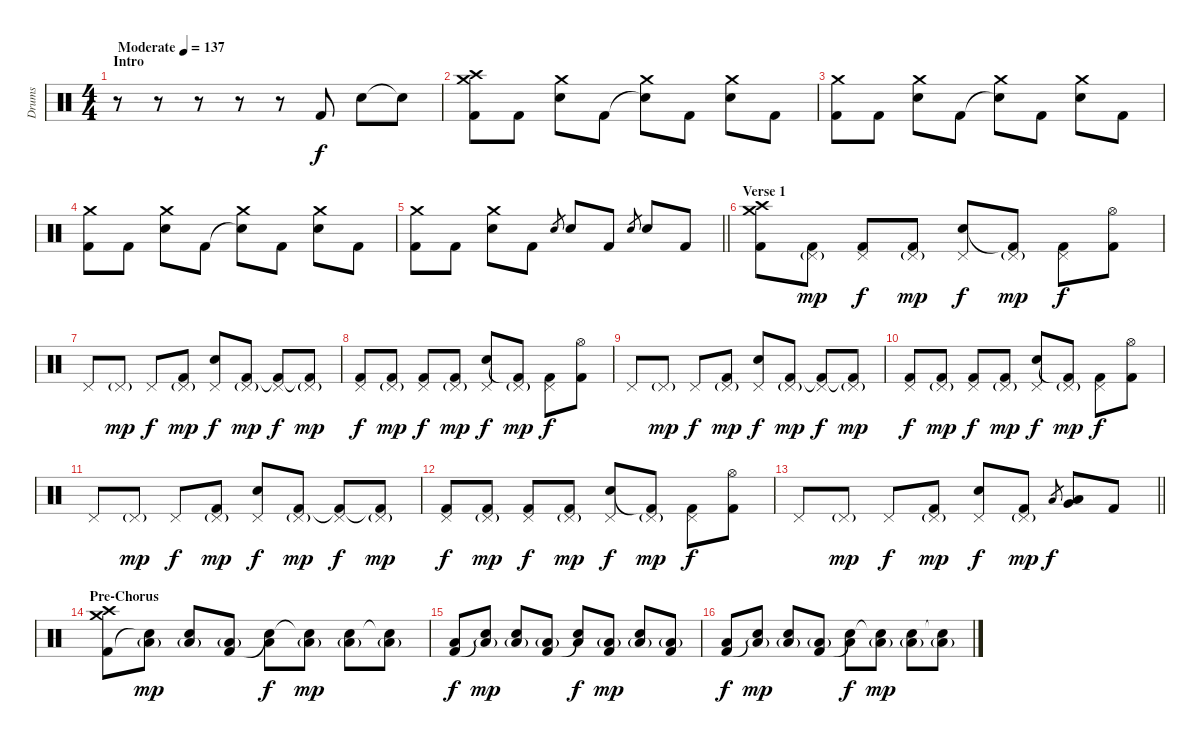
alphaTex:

\track ("Drums" "Drums") {instrument percussion}
\staff {score}
\articulation defaults
\ts (4 4)
\section ("" "Intro")
\tempo (137 "Moderate")
\clef neutral
\ks c
r.8{dy f} r.8 r.8 r.8 r.8 "Kick (hit) 2".8 "Electric Snare (hit)".8 "Snare (hit)"{t}.8 |
("Kick (hit) 2" "Crash medium (hit)" "Crash high (hit)").8 "Kick (hit) 2".8 ("Electric Snare (hit)" "Crash medium (hit)").8 "Kick (hit) 2".8 ("Snare (hit)"{t} "Crash medium (hit)").8 "Kick (hit) 2".8 ("Electric Snare (hit)" "Crash medium (hit)").8 "Kick (hit) 2".8 |
("Kick (hit) 2" "Crash medium (hit)").8 "Kick (hit) 2".8 ("Electric Snare (hit)" "Crash medium (hit)").8 "Kick (hit) 2".8 ("Snare (hit)"{t} "Crash medium (hit)").8 "Kick (hit) 2".8 ("Electric Snare (hit)" "Crash medium (hit)").8 "Kick (hit) 2".8 |
("Kick (hit) 2" "Crash medium (hit)").8 "Kick (hit) 2".8 ("Electric Snare (hit)" "Crash medium (hit)").8 "Kick (hit) 2".8 ("Snare (hit)"{t} "Crash medium (hit)").8 "Kick (hit) 2".8 ("Electric Snare (hit)" "Crash medium (hit)").8 "Kick (hit) 2".8 |
\barLineRight lightlight
("Kick (hit) 2" "Crash medium (hit)").8 "Kick (hit) 2".8 ("Electric Snare (hit)" "Crash medium (hit)").8 "Kick (hit) 2".8 "Electric Snare (hit)".8{gr} "Electric Snare (hit)".8 "Kick (hit) 2".8 "Electric Snare (hit)".8{gr} "Electric Snare (hit)".8 "Kick (hit) 2".8 |
\section ("" "Verse 1")
("Kick (hit) 2" "Crash medium (hit)" "Crash high (hit)").8 ("Kick (hit) 2" "Pedal Hi-Hat (hit)"{g}).8{dy mp} ("Kick (hit) 2" "Pedal Hi-Hat (hit)").8{dy f} ("Kick (hit) 2" "Pedal Hi-Hat (hit)"{g}).8{dy mp} ("Electric Snare (hit)" "Pedal Hi-Hat (hit)").8{dy f} ("Kick (hit) 2"{t} "Pedal Hi-Hat (hit)"{g}).8{dy mp} ("Kick (hit) 2" "Pedal Hi-Hat (hit)").8{dy f} ("Kick (hit) 2" "Hi-Hat (open)").8 |
"Pedal Hi-Hat (hit)".8 "Pedal Hi-Hat (hit)"{g}.8{dy mp} "Pedal Hi-Hat (hit)".8{dy f} ("Kick (hit) 2" "Pedal Hi-Hat (hit)"{g}).8{dy mp} ("Electric Snare (hit)" "Pedal Hi-Hat (hit)").8{dy f} ("Kick (hit) 2" "Pedal Hi-Hat (hit)"{g}).8{dy mp} ("Kick (hit) 2"{t} "Pedal Hi-Hat (hit)").8{dy f} ("Kick (hit) 2"{t} "Pedal Hi-Hat (hit)"{g}).8{dy mp} |
("Kick (hit) 2" "Pedal Hi-Hat (hit)").8{dy f} ("Kick (hit) 2" "Pedal Hi-Hat (hit)"{g}).8{dy mp} ("Kick (hit) 2" "Pedal Hi-Hat (hit)").8{dy f} ("Kick (hit) 2" "Pedal Hi-Hat (hit)"{g}).8{dy mp} ("Electric Snare (hit)" "Pedal Hi-Hat (hit)").8{dy f} ("Kick (hit) 2"{t} "Pedal Hi-Hat (hit)"{g}).8{dy mp} ("Kick (hit) 2" "Pedal Hi-Hat (hit)").8{dy f} ("Kick (hit) 2" "Hi-Hat (open)").8 |
"Pedal Hi-Hat (hit)".8 "Pedal Hi-Hat (hit)"{g}.8{dy mp} "Pedal Hi-Hat (hit)".8{dy f} ("Kick (hit) 2" "Pedal Hi-Hat (hit)"{g}).8{dy mp} ("Electric Snare (hit)" "Pedal Hi-Hat (hit)").8{dy f} ("Kick (hit) 2" "Pedal Hi-Hat (hit)"{g}).8{dy mp} ("Kick (hit) 2"{t} "Pedal Hi-Hat (hit)").8{dy f} ("Kick (hit) 2"{t} "Pedal Hi-Hat (hit)"{g}).8{dy mp} |
("Kick (hit) 2" "Pedal Hi-Hat (hit)").8{dy f} ("Kick (hit) 2" "Pedal Hi-Hat (hit)"{g}).8{dy mp} ("Kick (hit) 2" "Pedal Hi-Hat (hit)").8{dy f} ("Kick (hit) 2" "Pedal Hi-Hat (hit)"{g}).8{dy mp} ("Electric Snare (hit)" "Pedal Hi-Hat (hit)").8{dy f} ("Kick (hit) 2"{t} "Pedal Hi-Hat (hit)"{g}).8{dy mp} ("Kick (hit) 2" "Pedal Hi-Hat (hit)").8{dy f} ("Kick (hit) 2" "Hi-Hat (open)").8 |
"Pedal Hi-Hat (hit)".8 "Pedal Hi-Hat (hit)"{g}.8{dy mp} "Pedal Hi-Hat (hit)".8{dy f} ("Kick (hit) 2" "Pedal Hi-Hat (hit)"{g}).8{dy mp} ("Electric Snare (hit)" "Pedal Hi-Hat (hit)").8{dy f} ("Kick (hit) 2" "Pedal Hi-Hat (hit)"{g}).8{dy mp} ("Kick (hit) 2"{t} "Pedal Hi-Hat (hit)").8{dy f} ("Kick (hit) 2"{t} "Pedal Hi-Hat (hit)"{g}).8{dy mp} |
("Kick (hit) 2" "Pedal Hi-Hat (hit)").8{dy f} ("Kick (hit) 2" "Pedal Hi-Hat (hit)"{g}).8{dy mp} ("Kick (hit) 2" "Pedal Hi-Hat (hit)").8{dy f} ("Kick (hit) 2" "Pedal Hi-Hat (hit)"{g}).8{dy mp} ("Electric Snare (hit)" "Pedal Hi-Hat (hit)").8{dy f} ("Kick (hit) 2"{t} "Pedal Hi-Hat (hit)"{g}).8{dy mp} ("Kick (hit) 2" "Pedal Hi-Hat (hit)").8{dy f} ("Kick (hit) 2" "Hi-Hat (open)").8 |
\barLineRight lightlight "Pedal Hi-Hat (hit)".8 "Pedal Hi-Hat (hit)"{g}.8{dy mp} "Pedal Hi-Hat (hit)".8{dy f}
("Kick (hit) 2" "Pedal Hi-Hat (hit)"{g}).8{dy mp} ("Electric Snare (hit)" "Pedal Hi-Hat (hit)").8{dy f} ("Kick (hit) 2" "Pedal Hi-Hat (hit)"{g}).8{dy mp} "Low Tom (hit)".8{gr dy f} ("Low Tom (hit)" "Very Low Tom (hit)").8 "Kick (hit) 2".8 |
\section ("" "Pre-Chorus")
("Kick (hit) 2" "Crash medium (hit)" "Crash high (hit)").8 ("Snare (hit)"{t} "Low Floor Tom (hit)"{g}).8{dy mp} ("Electric Snare (hit)" "Low Floor Tom (hit)"{g}).8 ("Kick (hit) 2" "Low Floor Tom (hit)"{g}).8 ("Snare (hit)"{t} "Low Floor Tom (hit)").8{dy f} ("Snare (hit)"{t} "Low Floor Tom (hit)"{g}).8{dy mp} ("Electric Snare (hit)" "Low Floor Tom (hit)"{g}).8 ("Electric Snare (hit)"{t} "Low Floor Tom (hit)"{g}).8 |
("Kick (hit) 2" "Low Floor Tom (hit)").8{dy f} ("Snare (hit)"{t} "Low Floor Tom (hit)"{g}).8{dy mp} ("Electric Snare (hit)" "Low Floor Tom (hit)"{g}).8 ("Kick (hit) 2" "Low Floor Tom (hit)"{g}).8 ("Snare (hit)"{t} "Low Floor Tom (hit)").8{dy f} ("Kick (hit) 2" "Low Floor Tom (hit)"{g}).8{dy mp} ("Electric Snare (hit)" "Low Floor Tom (hit)"{g}).8 ("Kick (hit) 2" "Low Floor Tom (hit)"{g}).8 |
("Kick (hit) 2" "Low Floor Tom (hit)").8{dy f} ("Snare (hit)"{t} "Low Floor Tom (hit)"{g}).8{dy mp} ("Electric Snare (hit)" "Low Floor Tom (hit)"{g}).8 ("Kick (hit) 2" "Low Floor Tom (hit)"{g}).8 ("Snare (hit)"{t} "Low Floor Tom (hit)").8{dy f} ("Snare (hit)"{t} "Low Floor Tom (hit)"{g}).8{dy mp} ("Electric Snare (hit)" "Low Floor Tom (hit)"{g}).8 ("Electric Snare (hit)"{t} "Low Floor Tom (hit)"{g}).8
